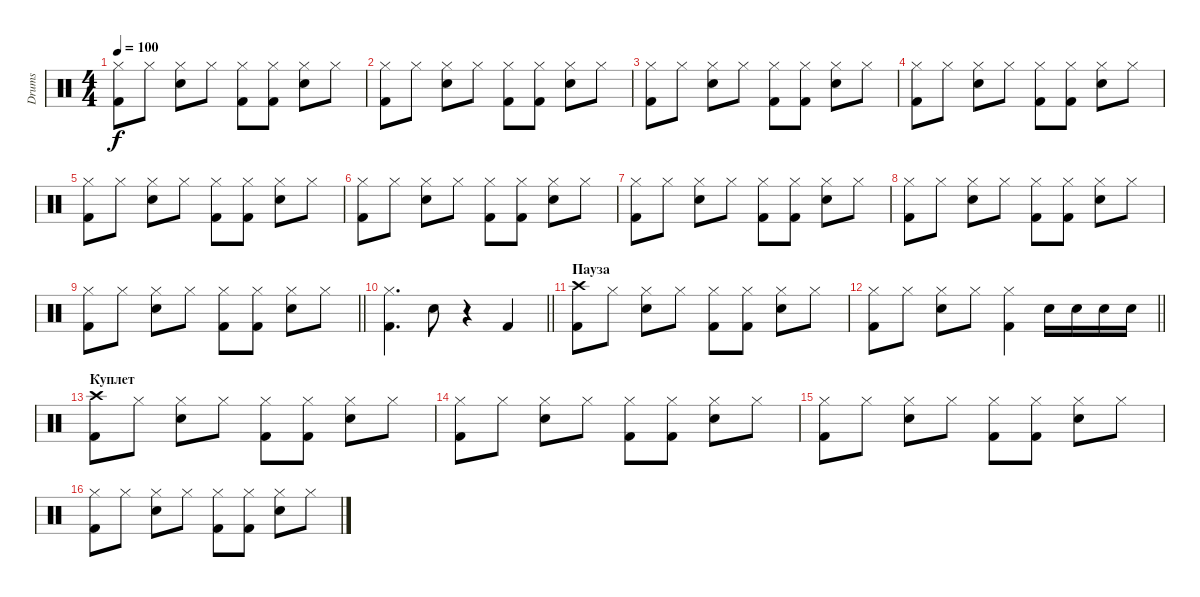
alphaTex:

\track ("Drums" "Drums") {instrument percussion}
\staff {score}
\articulation defaults
\ts (4 4)
\tempo 100
\clef neutral
\ks c
("Hi-Hat (closed)" "Kick (hit) 2").8{dy f} "Hi-Hat (closed)".8 ("Hi-Hat (closed)" "Snare (hit) 2").8 "Hi-Hat (closed)".8 ("Hi-Hat (closed)" "Kick (hit) 2").8 ("Hi-Hat (closed)" "Kick (hit) 2").8 ("Hi-Hat (closed)" "Snare (hit) 2").8 "Hi-Hat (closed)".8 |
("Hi-Hat (closed)" "Kick (hit) 2").8 "Hi-Hat (closed)".8 ("Hi-Hat (closed)" "Snare (hit) 2").8 "Hi-Hat (closed)".8 ("Hi-Hat (closed)" "Kick (hit) 2").8 ("Hi-Hat (closed)" "Kick (hit) 2").8 ("Hi-Hat (closed)" "Snare (hit) 2").8 "Hi-Hat (closed)".8 |
("Hi-Hat (closed)" "Kick (hit) 2").8 "Hi-Hat (closed)".8 ("Hi-Hat (closed)" "Snare (hit) 2").8 "Hi-Hat (closed)".8 ("Hi-Hat (closed)" "Kick (hit) 2").8 ("Hi-Hat (closed)" "Kick (hit) 2").8 ("Hi-Hat (closed)" "Snare (hit) 2").8 "Hi-Hat (closed)".8 |
("Hi-Hat (closed)" "Kick (hit) 2").8 "Hi-Hat (closed)".8 ("Hi-Hat (closed)" "Snare (hit) 2").8 "Hi-Hat (closed)".8 ("Hi-Hat (closed)" "Kick (hit) 2").8 ("Hi-Hat (closed)" "Kick (hit) 2").8 ("Hi-Hat (closed)" "Snare (hit) 2").8 "Hi-Hat (closed)".8 |
("Hi-Hat (closed)" "Kick (hit) 2").8 "Hi-Hat (closed)".8 ("Hi-Hat (closed)" "Snare (hit) 2").8 "Hi-Hat (closed)".8 ("Hi-Hat (closed)" "Kick (hit) 2").8 ("Hi-Hat (closed)" "Kick (hit) 2").8 ("Hi-Hat (closed)" "Snare (hit) 2").8 "Hi-Hat (closed)".8 |
("Hi-Hat (closed)" "Kick (hit) 2").8 "Hi-Hat (closed)".8 ("Hi-Hat (closed)" "Snare (hit) 2").8 "Hi-Hat (closed)".8 ("Hi-Hat (closed)" "Kick (hit) 2").8 ("Hi-Hat (closed)" "Kick (hit) 2").8 ("Hi-Hat (closed)" "Snare (hit) 2").8 "Hi-Hat (closed)".8 |
("Hi-Hat (closed)" "Kick (hit) 2").8 "Hi-Hat (closed)".8 ("Hi-Hat (closed)" "Snare (hit) 2").8 "Hi-Hat (closed)".8 ("Hi-Hat (closed)" "Kick (hit) 2").8 ("Hi-Hat (closed)" "Kick (hit) 2").8 ("Hi-Hat (closed)" "Snare (hit) 2").8 "Hi-Hat (closed)".8 |
("Hi-Hat (closed)" "Kick (hit) 2").8 "Hi-Hat (closed)".8 ("Hi-Hat (closed)" "Snare (hit) 2").8 "Hi-Hat (closed)".8 ("Hi-Hat (closed)" "Kick (hit) 2").8 ("Hi-Hat (closed)" "Kick (hit) 2").8 ("Hi-Hat (closed)" "Snare (hit) 2").8 "Hi-Hat (closed)".8 |
\barLineRight lightlight
("Hi-Hat (closed)" "Kick (hit) 2").8 "Hi-Hat (closed)".8 ("Hi-Hat (closed)" "Snare (hit) 2").8 "Hi-Hat (closed)".8 ("Hi-Hat (closed)" "Kick (hit) 2").8 ("Hi-Hat (closed)" "Kick (hit) 2").8 ("Hi-Hat (closed)" "Snare (hit) 2").8 "Hi-Hat (closed)".8 |
\barLineRight lightlight
("Hi-Hat (closed)" "Kick (hit) 2").4{d} "Snare (hit) 2".8 r.4 "Kick (hit) 2".4 |
\section ("" "Пауза")
("Crash high (hit)" "Kick (hit) 2").8 "Hi-Hat (closed)".8 ("Hi-Hat (closed)" "Snare (hit) 2").8 "Hi-Hat (closed)".8 ("Hi-Hat (closed)" "Kick (hit) 2").8 ("Hi-Hat (closed)" "Kick (hit) 2").8 ("Hi-Hat (closed)" "Snare (hit) 2").8 "Hi-Hat (closed)".8 |
\barLineRight lightlight
("Hi-Hat (closed)" "Kick (hit) 2").8 "Hi-Hat (closed)".8 ("Hi-Hat (closed)" "Snare (hit) 2").8 "Hi-Hat (closed)".8 ("Hi-Hat (closed)" "Kick (hit) 2").4 "Snare (hit) 2".16 "Snare (hit) 2".16 "Snare (hit) 2".16 "Snare (hit) 2".16 |
\section ("" "Куплет")
("Crash high (hit)" "Kick (hit) 2").8 "Hi-Hat (closed)".8 ("Hi-Hat (closed)" "Snare (hit) 2").8 "Hi-Hat (closed)".8 ("Hi-Hat (closed)" "Kick (hit) 2").8 ("Hi-Hat (closed)" "Kick (hit) 2").8 ("Hi-Hat (closed)" "Snare (hit) 2").8 "Hi-Hat (closed)".8 |
("Hi-Hat (closed)" "Kick (hit) 2").8 "Hi-Hat (closed)".8 ("Hi-Hat (closed)" "Snare (hit) 2").8 "Hi-Hat (closed)".8 ("Hi-Hat (closed)" "Kick (hit) 2").8 ("Hi-Hat (closed)" "Kick (hit) 2").8 ("Hi-Hat (closed)" "Snare (hit) 2").8 "Hi-Hat (closed)".8 |
("Hi-Hat (closed)" "Kick (hit) 2").8 "Hi-Hat (closed)".8 ("Hi-Hat (closed)" "Snare (hit) 2").8 "Hi-Hat (closed)".8 ("Hi-Hat (closed)" "Kick (hit) 2").8 ("Hi-Hat (closed)" "Kick (hit) 2").8 ("Hi-Hat (closed)" "Snare (hit) 2").8 "Hi-Hat (closed)".8 |
("Hi-Hat (closed)" "Kick (hit) 2").8 "Hi-Hat (closed)".8 ("Hi-Hat (closed)" "Snare (hit) 2").8 "Hi-Hat (closed)".8 ("Hi-Hat (closed)" "Kick (hit) 2").8 ("Hi-Hat (closed)" "Kick (hit) 2").8 ("Hi-Hat (closed)" "Snare (hit) 2").8 "Hi-Hat (closed)".8
